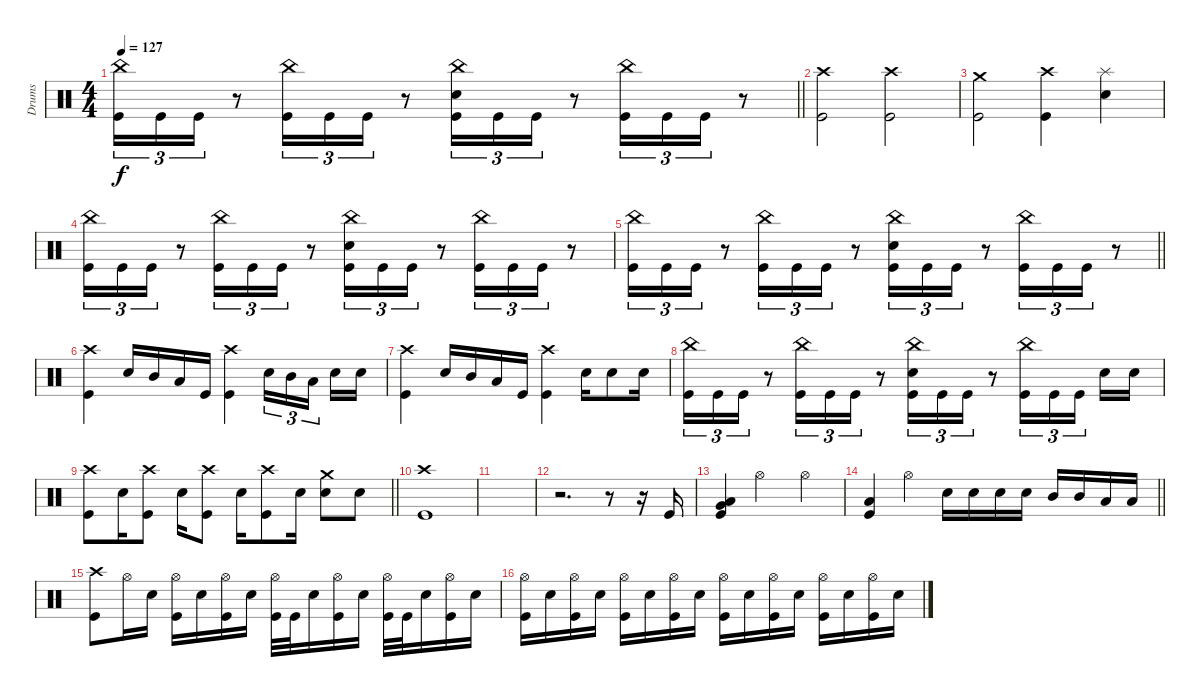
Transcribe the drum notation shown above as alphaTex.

\track ("Drums" "Drums") {instrument percussion}
\staff
\articulation defaults
\ts (4 4)
\tempo 127
\clef neutral
\barLineRight lightlight
\ks c
("China (hit)" "Kick (hit)").16{tu (3 2) dy f} "Kick (hit)".16{tu (3 2)} "Kick (hit)".16{tu (3 2)} r.8 ("China (hit)" "Kick (hit)").16{tu (3 2)} "Kick (hit)".16{tu (3 2)} "Kick (hit)".16{tu (3 2)} r.8 ("China (hit)" "Electric Snare (hit)" "Kick (hit)").16{tu (3 2)} "Kick (hit)".16{tu (3 2)} "Kick (hit)".16{tu (3 2)} r.8 ("China (hit)" "Kick (hit)").16{tu (3 2)} "Kick (hit)".16{tu (3 2)} "Kick (hit)".16{tu (3 2)} r.8 |
("Crash high (hit)" "Kick (hit)").2 ("Crash high (hit)" "Kick (hit)").2 |
("Crash medium (hit)" "Kick (hit)").2 ("Crash high (hit)" "Kick (hit)").4 ("Splash (hit)" "Electric Snare (hit)").4 |
("China (hit)" "Kick (hit)").16{tu (3 2)} "Kick (hit)".16{tu (3 2)} "Kick (hit)".16{tu (3 2)} r.8 ("China (hit)" "Kick (hit)").16{tu (3 2)} "Kick (hit)".16{tu (3 2)} "Kick (hit)".16{tu (3 2)} r.8 ("China (hit)" "Electric Snare (hit)" "Kick (hit)").16{tu (3 2)} "Kick (hit)".16{tu (3 2)} "Kick (hit)".16{tu (3 2)} r.8 ("China (hit)" "Kick (hit)").16{tu (3 2)} "Kick (hit)".16{tu (3 2)} "Kick (hit)".16{tu (3 2)} r.8 |
\barLineRight lightlight
("China (hit)" "Kick (hit)").16{tu (3 2)} "Kick (hit)".16{tu (3 2)} "Kick (hit)".16{tu (3 2)} r.8 ("China (hit)" "Kick (hit)").16{tu (3 2)} "Kick (hit)".16{tu (3 2)} "Kick (hit)".16{tu (3 2)} r.8 ("China (hit)" "Electric Snare (hit)" "Kick (hit)").16{tu (3 2)} "Kick (hit)".16{tu (3 2)} "Kick (hit)".16{tu (3 2)} r.8 ("China (hit)" "Kick (hit)").16{tu (3 2)} "Kick (hit)".16{tu (3 2)} "Kick (hit)".16{tu (3 2)} r.8 |
("Crash high (hit)" "Kick (hit)").4 "Electric Snare (hit)".16 "Mid Tom (hit)".16 "Low Tom (hit)".16 "Kick (hit)".16 ("Crash high (hit)" "Kick (hit)").4 "Electric Snare (hit)".16{tu (3 2)} "Mid Tom (hit)".16{tu (3 2)} "Low Tom (hit)".16{tu (3 2) beam splitsecondary} "Electric Snare (hit)".16 "Electric Snare (hit)".16 |
("Crash high (hit)" "Kick (hit)").4 "Electric Snare (hit)".16 "Mid Tom (hit)".16 "Low Tom (hit)".16 "Kick (hit)".16 ("Crash high (hit)" "Kick (hit)").4 "Electric Snare (hit)".16 "Electric Snare (hit)".8 "Electric Snare (hit)".16 |
("China (hit)" "Kick (hit)").16{tu (3 2)} "Kick (hit)".16{tu (3 2)} "Kick (hit)".16{tu (3 2)} r.8 ("China (hit)" "Kick (hit)").16{tu (3 2)} "Kick (hit)".16{tu (3 2)} "Kick (hit)".16{tu (3 2)} r.8 ("China (hit)" "Electric Snare (hit)" "Kick (hit)").16{tu (3 2)} "Kick (hit)".16{tu (3 2)} "Kick (hit)".16{tu (3 2)} r.8 ("China (hit)" "Kick (hit)").16{tu (3 2)} "Kick (hit)".16{tu (3 2)} "Kick (hit)".16{tu (3 2) beam splitsecondary} "Electric Snare (hit)".16 "Electric Snare (hit)".16 |
\barLineRight lightlight
("Crash high (hit)" "Kick (hit)").8 "Electric Snare (hit)".16 ("Crash high (hit)" "Kick (hit)").8 "Electric Snare (hit)".16 ("Crash high (hit)" "Kick (hit)").8 "Electric Snare (hit)".16 ("Crash high (hit)" "Kick (hit)").8 "Electric Snare (hit)".16 ("Crash medium (hit)" "Electric Snare (hit)").8 "Electric Snare (hit)".8 |
\section ("" "")
("Crash high (hit)" "Kick (hit)").1 |
|
r.2{d} r.8 r.16 "Kick (hit)".16 |
("Very Low Tom (hit)" "Low Floor Tom (hit)" "Kick (hit)").4 "Hi-Hat (open)".2 "Hi-Hat (open)".4 |
\barLineRight lightlight
("Low Floor Tom (hit)" "Kick (hit)").4 "Hi-Hat (open)".4 "Electric Snare (hit)".16 "Electric Snare (hit)".16 "Electric Snare (hit)".16 "Electric Snare (hit)".16 "Mid Tom (hit)".16 "Mid Tom (hit)".16 "Low Tom (hit)".16 "Low Tom (hit)".16 |
("Crash high (hit)" "Kick (hit)").8 "Hi-Hat (open)".16 "Electric Snare (hit)".16 ("Hi-Hat (open)" "Kick (hit)").16 "Electric Snare (hit)".16 ("Hi-Hat (open)" "Kick (hit)").16 "Electric Snare (hit)".16 ("Hi-Hat (open)" "Kick (hit)").32 "Kick (hit)".32 "Electric Snare (hit)".16 ("Hi-Hat (open)" "Kick (hit)").16 "Electric Snare (hit)".16 ("Hi-Hat (open)" "Kick (hit)").32 "Kick (hit)".32 "Electric Snare (hit)".16 ("Hi-Hat (open)" "Kick (hit)").16 "Electric Snare (hit)".16 |
("Hi-Hat (open)" "Kick (hit)").16 "Electric Snare (hit)".16 ("Hi-Hat (open)" "Kick (hit)").16 "Electric Snare (hit)".16 ("Hi-Hat (open)" "Kick (hit)").16 "Electric Snare (hit)".16 ("Hi-Hat (open)" "Kick (hit)").16 "Electric Snare (hit)".16 ("Hi-Hat (open)" "Kick (hit)").16 "Electric Snare (hit)".16 ("Hi-Hat (open)" "Kick (hit)").16 "Electric Snare (hit)".16 ("Hi-Hat (open)" "Kick (hit)").16 "Electric Snare (hit)".16 ("Hi-Hat (open)" "Kick (hit)").16 "Electric Snare (hit)".16
